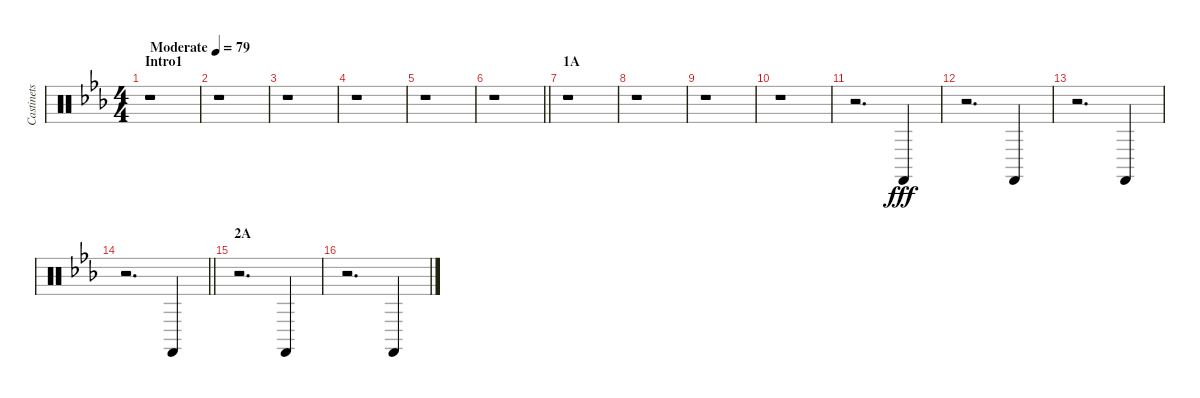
\track ("Castinets" "Castinets") {instrument percussion}
\staff {score}
\articulation defaults
\ts (4 4)
\section ("" "Intro1")
\tempo (79 "Moderate")
\clef neutral
\ks eb
r.1{dy fff} |
r.1 |
r.1 |
r.1 |
r.1 |
\barLineRight lightlight
r.1 |
\section ("" "1A")
r.1 |
r.1 |
r.1 |
r.1 |
r.2{d} "Castanets (hit)".4 |
r.2{d} "Castanets (hit)".4 |
r.2{d} "Castanets (hit)".4 |
\barLineRight lightlight
r.2{d} "Castanets (hit)".4 |
\section ("" "2A")
r.2{d} "Castanets (hit)".4 |
r.2{d} "Castanets (hit)".4
